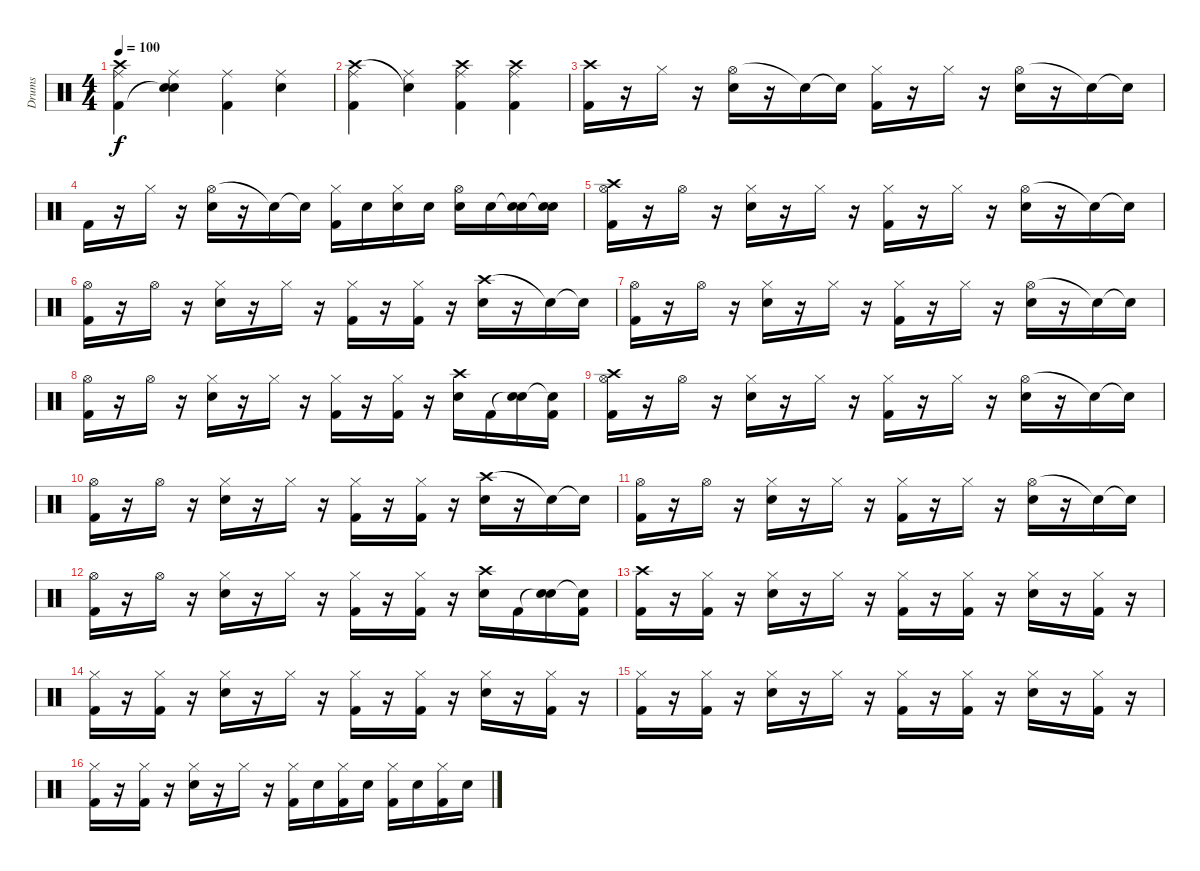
\track ("Drums" "Drums") {instrument percussion}
\staff {score}
\articulation defaults
\ts (4 4)
\tempo 100
\clef neutral
\ks c
("Ride (middle)" "Crash high (hit)" "Kick (hit) 2").4{dy f} ("Ride (middle)" "Electric Snare (hit)" "Snare (hit)"{t}).4 ("Ride (middle)" "Kick (hit) 2").4 ("Ride (middle)" "Electric Snare (hit)").4 |
("Ride (middle)" "Crash high (hit)" "Kick (hit) 2").4 ("Ride (middle)" "Snare (hit)"{t}).4 ("Ride (middle)" "Crash high (hit)" "Kick (hit) 2").4 ("Ride (middle)" "Crash high (hit)" "Kick (hit) 2").4 |
("Crash high (hit)" "Kick (hit) 2").16 r.16 "Hi-Hat (closed)".16 r.16 ("Hi-Hat (open)" "Electric Snare (hit)").16 r.16 "Snare (hit)"{t}.16 "Snare (hit)"{t}.16 ("Hi-Hat (closed)" "Kick (hit) 2").16 r.16 "Hi-Hat (closed)".16 r.16 ("Hi-Hat (open)" "Electric Snare (hit)").16 r.16 "Snare (hit)"{t}.16 "Snare (hit)"{t}.16 |
"Kick (hit) 2".16 r.16 "Hi-Hat (closed)".16 r.16 ("Hi-Hat (open)" "Electric Snare (hit)").16 r.16 "Snare (hit)"{t}.16 "Snare (hit)"{t}.16 ("Hi-Hat (closed)" "Kick (hit) 2").16 "Electric Snare (hit)".16 ("Hi-Hat (closed)" "Electric Snare (hit)").16 "Electric Snare (hit)".16 ("Hi-Hat (open)" "Electric Snare (hit)").16 "Electric Snare (hit)".16 ("Snare (hit)"{t} "Electric Snare (hit)").16 ("Snare (hit)"{t} "Electric Snare (hit)").16 |
("Crash high (hit)" "Hi-Hat (open)" "Kick (hit) 2").16 r.16 "Hi-Hat (open)".16 r.16 ("Hi-Hat (closed)" "Electric Snare (hit)").16 r.16 "Hi-Hat (closed)".16 r.16 ("Hi-Hat (closed)" "Kick (hit) 2").16 r.16 "Hi-Hat (closed)".16 r.16 ("Hi-Hat (open)" "Electric Snare (hit)").16 r.16 "Snare (hit)"{t}.16 "Snare (hit)"{t}.16 |
("Hi-Hat (open)" "Kick (hit) 2").16 r.16 "Hi-Hat (open)".16 r.16 ("Hi-Hat (closed)" "Electric Snare (hit)").16 r.16 "Hi-Hat (closed)".16 r.16 ("Hi-Hat (closed)" "Kick (hit) 2").16 r.16 ("Hi-Hat (closed)" "Kick (hit) 2").16 r.16 ("Crash high (hit)" "Electric Snare (hit)").16 r.16 "Snare (hit)"{t}.16 "Snare (hit)"{t}.16 |
("Hi-Hat (open)" "Kick (hit) 2").16 r.16 "Hi-Hat (open)".16 r.16 ("Hi-Hat (closed)" "Electric Snare (hit)").16 r.16 "Hi-Hat (closed)".16 r.16 ("Hi-Hat (closed)" "Kick (hit) 2").16 r.16 "Hi-Hat (closed)".16 r.16 ("Hi-Hat (open)" "Electric Snare (hit)").16 r.16 "Snare (hit)"{t}.16 "Snare (hit)"{t}.16 |
("Hi-Hat (open)" "Kick (hit) 2").16 r.16 "Hi-Hat (open)".16 r.16 ("Hi-Hat (closed)" "Electric Snare (hit)").16 r.16 "Hi-Hat (closed)".16 r.16 ("Hi-Hat (closed)" "Kick (hit) 2").16 r.16 ("Hi-Hat (closed)" "Kick (hit) 2").16 r.16 ("Crash high (hit)" "Electric Snare (hit)").16 "Kick (hit) 2".16 ("Snare (hit)"{t} "Electric Snare (hit)").16 ("Snare (hit)"{t} "Kick (hit) 2").16 |
("Crash high (hit)" "Hi-Hat (open)" "Kick (hit) 2").16 r.16 "Hi-Hat (open)".16 r.16 ("Hi-Hat (closed)" "Electric Snare (hit)").16 r.16 "Hi-Hat (closed)".16 r.16 ("Hi-Hat (closed)" "Kick (hit) 2").16 r.16 "Hi-Hat (closed)".16 r.16 ("Hi-Hat (open)" "Electric Snare (hit)").16 r.16 "Snare (hit)"{t}.16 "Snare (hit)"{t}.16 |
("Hi-Hat (open)" "Kick (hit) 2").16 r.16 "Hi-Hat (open)".16 r.16 ("Hi-Hat (closed)" "Electric Snare (hit)").16 r.16 "Hi-Hat (closed)".16 r.16 ("Hi-Hat (closed)" "Kick (hit) 2").16 r.16 ("Hi-Hat (closed)" "Kick (hit) 2").16 r.16 ("Crash high (hit)" "Electric Snare (hit)").16 r.16 "Snare (hit)"{t}.16 "Snare (hit)"{t}.16 |
("Hi-Hat (open)" "Kick (hit) 2").16 r.16 "Hi-Hat (open)".16 r.16 ("Hi-Hat (closed)" "Electric Snare (hit)").16 r.16 "Hi-Hat (closed)".16 r.16 ("Hi-Hat (closed)" "Kick (hit) 2").16 r.16 "Hi-Hat (closed)".16 r.16 ("Hi-Hat (open)" "Electric Snare (hit)").16 r.16 "Snare (hit)"{t}.16 "Snare (hit)"{t}.16 |
("Hi-Hat (open)" "Kick (hit) 2").16 r.16 "Hi-Hat (open)".16 r.16 ("Hi-Hat (closed)" "Electric Snare (hit)").16 r.16 "Hi-Hat (closed)".16 r.16 ("Hi-Hat (closed)" "Kick (hit) 2").16 r.16 ("Hi-Hat (closed)" "Kick (hit) 2").16 r.16 ("Crash high (hit)" "Electric Snare (hit)").16 "Kick (hit) 2".16 ("Snare (hit)"{t} "Electric Snare (hit)").16 ("Snare (hit)"{t} "Kick (hit) 2").16 |
("Crash high (hit)" "Kick (hit) 2").16 r.16 ("Hi-Hat (closed)" "Kick (hit) 2").16 r.16 ("Hi-Hat (closed)" "Electric Snare (hit)").16 r.16 "Hi-Hat (closed)".16 r.16 ("Hi-Hat (closed)" "Kick (hit) 2").16 r.16 ("Hi-Hat (closed)" "Kick (hit) 2").16 r.16 ("Hi-Hat (closed)" "Electric Snare (hit)").16 r.16 ("Hi-Hat (closed)" "Kick (hit) 2").16 r.16 |
("Hi-Hat (closed)" "Kick (hit) 2").16 r.16 ("Hi-Hat (closed)" "Kick (hit) 2").16 r.16 ("Hi-Hat (closed)" "Electric Snare (hit)").16 r.16 "Hi-Hat (closed)".16 r.16 ("Hi-Hat (closed)" "Kick (hit) 2").16 r.16 ("Hi-Hat (closed)" "Kick (hit) 2").16 r.16 ("Hi-Hat (closed)" "Electric Snare (hit)").16 r.16 ("Hi-Hat (closed)" "Kick (hit) 2").16 r.16 |
("Hi-Hat (closed)" "Kick (hit) 2").16 r.16 ("Hi-Hat (closed)" "Kick (hit) 2").16 r.16 ("Hi-Hat (closed)" "Electric Snare (hit)").16 r.16 "Hi-Hat (closed)".16 r.16 ("Hi-Hat (closed)" "Kick (hit) 2").16 r.16 ("Hi-Hat (closed)" "Kick (hit) 2").16 r.16 ("Hi-Hat (closed)" "Electric Snare (hit)").16 r.16 ("Hi-Hat (closed)" "Kick (hit) 2").16 r.16 |
("Hi-Hat (closed)" "Kick (hit) 2").16 r.16 ("Hi-Hat (closed)" "Kick (hit) 2").16 r.16 ("Hi-Hat (closed)" "Electric Snare (hit)").16 r.16 "Hi-Hat (closed)".16 r.16 ("Hi-Hat (closed)" "Kick (hit) 2").16 "Electric Snare (hit)".16 ("Hi-Hat (closed)" "Kick (hit) 2").16 "Electric Snare (hit)".16 ("Hi-Hat (closed)" "Kick (hit) 2").16 "Electric Snare (hit)".16 ("Hi-Hat (closed)" "Kick (hit) 2").16 "Electric Snare (hit)".16
